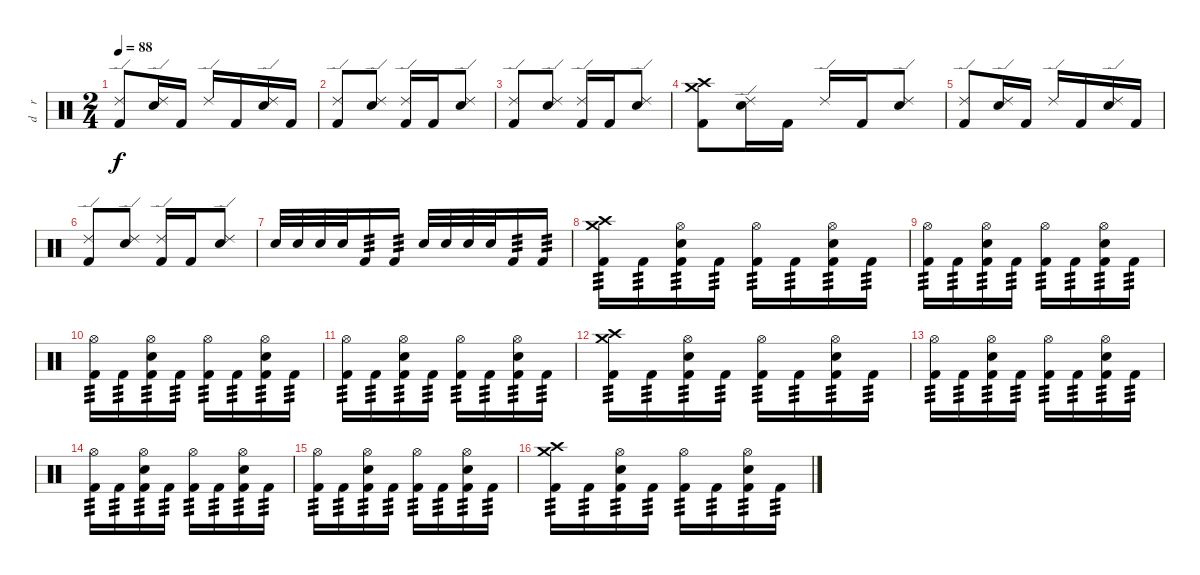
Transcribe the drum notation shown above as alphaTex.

\track ("d    r     u    m    s" "d    r    ") {instrument percussion}
\staff {score}
\articulation defaults
\ts (2 4)
\tempo 88
\clef neutral
\ks c
("Ride (edge) 2" "Kick (hit) 2").8{dy f} ("Ride (edge) 2" "Electric Snare (hit)").16 "Kick (hit) 2".16 "Ride (edge) 2".16 "Kick (hit) 2".16 ("Ride (edge) 2" "Electric Snare (hit)").16 "Kick (hit) 2".16 |
("Ride (edge) 2" "Kick (hit) 2").8 ("Ride (edge) 2" "Electric Snare (hit)").8 ("Ride (edge) 2" "Kick (hit) 2").16 "Kick (hit) 2".16 ("Ride (edge) 2" "Electric Snare (hit)").8 |
("Ride (edge) 2" "Kick (hit) 2").8 ("Ride (edge) 2" "Electric Snare (hit)").8 ("Ride (edge) 2" "Kick (hit) 2").16 "Kick (hit) 2".16 ("Ride (edge) 2" "Electric Snare (hit)").8 |
("Crash high (hit)" "Crash medium (hit)" "Kick (hit) 2").8 ("Ride (edge) 2" "Electric Snare (hit)").16 "Kick (hit) 2".16 "Ride (edge) 2".16 "Kick (hit) 2".16 ("Ride (edge) 2" "Electric Snare (hit)").8 |
("Ride (edge) 2" "Kick (hit) 2").8 ("Ride (edge) 2" "Electric Snare (hit)").16 "Kick (hit) 2".16 "Ride (edge) 2".16 "Kick (hit) 2".16 ("Ride (edge) 2" "Electric Snare (hit)").16 "Kick (hit) 2".16 |
("Ride (edge) 2" "Kick (hit) 2").8 ("Ride (edge) 2" "Electric Snare (hit)").8 ("Ride (edge) 2" "Kick (hit) 2").16 "Kick (hit) 2".16 ("Ride (edge) 2" "Electric Snare (hit)").8 |
"Electric Snare (hit)".32 "Electric Snare (hit)".32 "Electric Snare (hit)".32 "Electric Snare (hit)".32 "Kick (hit) 2".16{tp 3} "Kick (hit) 2".16{tp 3} "Electric Snare (hit)".32 "Electric Snare (hit)".32 "Electric Snare (hit)".32 "Electric Snare (hit)".32 "Kick (hit) 2".16{tp 3} "Kick (hit) 2".16{tp 3} |
("Crash high (hit)" "Crash medium (hit)" "Kick (hit) 2").16{tp 3} "Kick (hit) 2".16{tp 3} ("Hi-Hat (open)" "Electric Snare (hit)" "Kick (hit) 2").16{tp 3} "Kick (hit) 2".16{tp 3} ("Hi-Hat (open)" "Kick (hit) 2").16{tp 3} "Kick (hit) 2".16{tp 3} ("Hi-Hat (open)" "Electric Snare (hit)" "Kick (hit) 2").16{tp 3} "Kick (hit) 2".16{tp 3} |
("Hi-Hat (open)" "Kick (hit) 2").16{tp 3} "Kick (hit) 2".16{tp 3} ("Hi-Hat (open)" "Electric Snare (hit)" "Kick (hit) 2").16{tp 3} "Kick (hit) 2".16{tp 3} ("Hi-Hat (open)" "Kick (hit) 2").16{tp 3} "Kick (hit) 2".16{tp 3} ("Hi-Hat (open)" "Electric Snare (hit)" "Kick (hit) 2").16{tp 3} "Kick (hit) 2".16{tp 3} |
("Hi-Hat (open)" "Kick (hit) 2").16{tp 3} "Kick (hit) 2".16{tp 3} ("Hi-Hat (open)" "Electric Snare (hit)" "Kick (hit) 2").16{tp 3} "Kick (hit) 2".16{tp 3} ("Hi-Hat (open)" "Kick (hit) 2").16{tp 3} "Kick (hit) 2".16{tp 3} ("Hi-Hat (open)" "Electric Snare (hit)" "Kick (hit) 2").16{tp 3} "Kick (hit) 2".16{tp 3} |
("Hi-Hat (open)" "Kick (hit) 2").16{tp 3} "Kick (hit) 2".16{tp 3} ("Hi-Hat (open)" "Electric Snare (hit)" "Kick (hit) 2").16{tp 3} "Kick (hit) 2".16{tp 3} ("Hi-Hat (open)" "Kick (hit) 2").16{tp 3} "Kick (hit) 2".16{tp 3} ("Hi-Hat (open)" "Electric Snare (hit)" "Kick (hit) 2").16{tp 3} "Kick (hit) 2".16{tp 3} |
("Crash high (hit)" "Crash medium (hit)" "Kick (hit) 2").16{tp 3} "Kick (hit) 2".16{tp 3} ("Hi-Hat (open)" "Electric Snare (hit)" "Kick (hit) 2").16{tp 3} "Kick (hit) 2".16{tp 3} ("Hi-Hat (open)" "Kick (hit) 2").16{tp 3} "Kick (hit) 2".16{tp 3} ("Hi-Hat (open)" "Electric Snare (hit)" "Kick (hit) 2").16{tp 3} "Kick (hit) 2".16{tp 3} |
("Hi-Hat (open)" "Kick (hit) 2").16{tp 3} "Kick (hit) 2".16{tp 3} ("Hi-Hat (open)" "Electric Snare (hit)" "Kick (hit) 2").16{tp 3} "Kick (hit) 2".16{tp 3} ("Hi-Hat (open)" "Kick (hit) 2").16{tp 3} "Kick (hit) 2".16{tp 3} ("Hi-Hat (open)" "Electric Snare (hit)" "Kick (hit) 2").16{tp 3} "Kick (hit) 2".16{tp 3} |
("Hi-Hat (open)" "Kick (hit) 2").16{tp 3} "Kick (hit) 2".16{tp 3} ("Hi-Hat (open)" "Electric Snare (hit)" "Kick (hit) 2").16{tp 3} "Kick (hit) 2".16{tp 3} ("Hi-Hat (open)" "Kick (hit) 2").16{tp 3} "Kick (hit) 2".16{tp 3} ("Hi-Hat (open)" "Electric Snare (hit)" "Kick (hit) 2").16{tp 3} "Kick (hit) 2".16{tp 3} |
("Hi-Hat (open)" "Kick (hit) 2").16{tp 3} "Kick (hit) 2".16{tp 3} ("Hi-Hat (open)" "Electric Snare (hit)" "Kick (hit) 2").16{tp 3} "Kick (hit) 2".16{tp 3} ("Hi-Hat (open)" "Kick (hit) 2").16{tp 3} "Kick (hit) 2".16{tp 3} ("Hi-Hat (open)" "Electric Snare (hit)" "Kick (hit) 2").16{tp 3} "Kick (hit) 2".16{tp 3} |
("Crash high (hit)" "Crash medium (hit)" "Kick (hit) 2").16{tp 3} "Kick (hit) 2".16{tp 3} ("Hi-Hat (open)" "Electric Snare (hit)" "Kick (hit) 2").16{tp 3} "Kick (hit) 2".16{tp 3} ("Hi-Hat (open)" "Kick (hit) 2").16{tp 3} "Kick (hit) 2".16{tp 3} ("Hi-Hat (open)" "Electric Snare (hit)" "Kick (hit) 2").16{tp 3} "Kick (hit) 2".16{tp 3}
